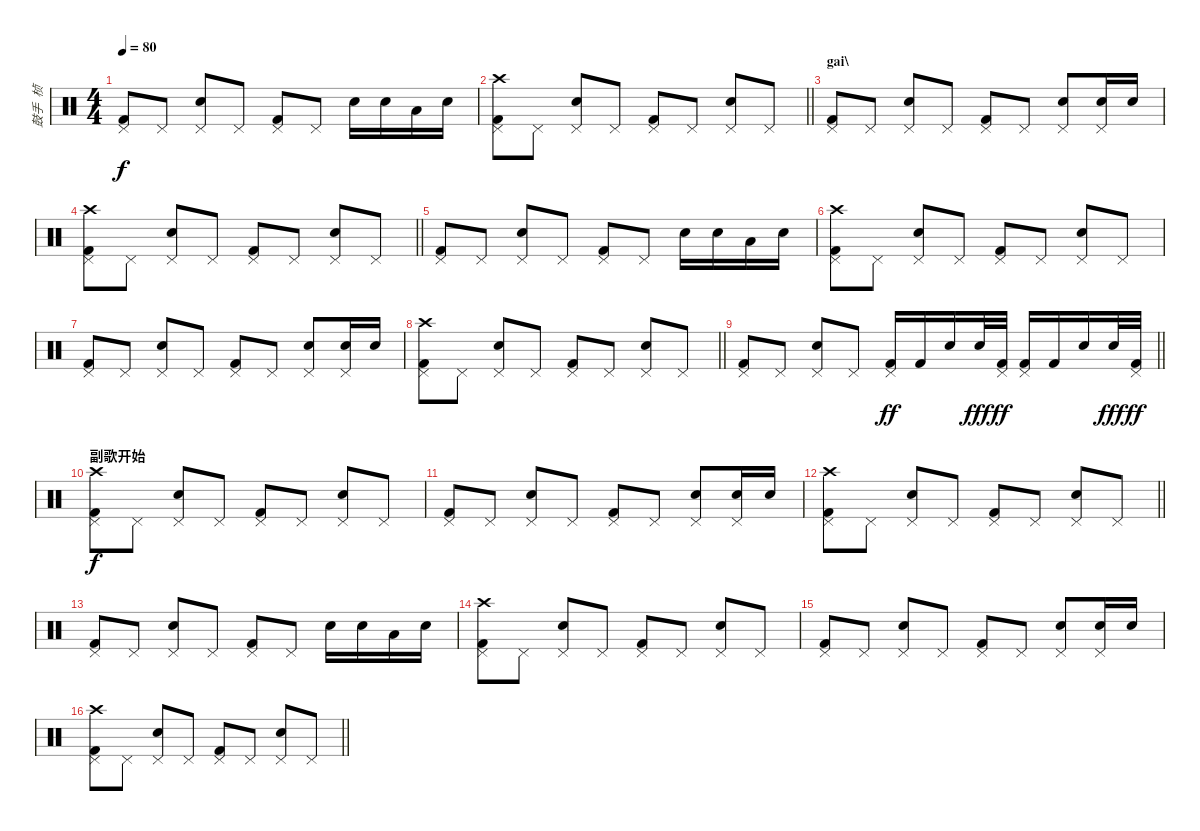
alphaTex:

\track ("鼓手  桢" "鼓手  桢") {instrument percussion}
\staff {score}
\articulation defaults
\ts (4 4)
\tempo 80
\clef neutral
\ks c
("Pedal Hi-Hat (hit)" "Kick (hit) 2").8{dy f} "Pedal Hi-Hat (hit)".8 ("Pedal Hi-Hat (hit)" "Snare (hit) 2").8 "Pedal Hi-Hat (hit)".8 ("Pedal Hi-Hat (hit)" "Kick (hit) 2").8 "Pedal Hi-Hat (hit)".8 "Snare (hit) 2".16 "Snare (hit) 2".16 "Low Tom (hit)".16 "Snare (hit) 2".16 |
\barLineRight lightlight
("Pedal Hi-Hat (hit)" "Kick (hit) 2" "Crash high (hit)").8 "Pedal Hi-Hat (hit)".8 ("Pedal Hi-Hat (hit)" "Snare (hit) 2").8 "Pedal Hi-Hat (hit)".8 ("Pedal Hi-Hat (hit)" "Kick (hit) 2").8 "Pedal Hi-Hat (hit)".8 ("Pedal Hi-Hat (hit)" "Snare (hit) 2").8 "Pedal Hi-Hat (hit)".8 |
\section ("" "gai\\")
("Pedal Hi-Hat (hit)" "Kick (hit) 2").8 "Pedal Hi-Hat (hit)".8 ("Pedal Hi-Hat (hit)" "Snare (hit) 2").8 "Pedal Hi-Hat (hit)".8 ("Pedal Hi-Hat (hit)" "Kick (hit) 2").8 "Pedal Hi-Hat (hit)".8 ("Pedal Hi-Hat (hit)" "Snare (hit) 2").8 ("Pedal Hi-Hat (hit)" "Snare (hit) 2").16 "Snare (hit) 2".16 |
\barLineRight lightlight
("Pedal Hi-Hat (hit)" "Kick (hit) 2" "Crash high (hit)").8 "Pedal Hi-Hat (hit)".8 ("Pedal Hi-Hat (hit)" "Snare (hit) 2").8 "Pedal Hi-Hat (hit)".8 ("Pedal Hi-Hat (hit)" "Kick (hit) 2").8 "Pedal Hi-Hat (hit)".8 ("Pedal Hi-Hat (hit)" "Snare (hit) 2").8 "Pedal Hi-Hat (hit)".8 |
("Pedal Hi-Hat (hit)" "Kick (hit) 2").8 "Pedal Hi-Hat (hit)".8 ("Pedal Hi-Hat (hit)" "Snare (hit) 2").8 "Pedal Hi-Hat (hit)".8 ("Pedal Hi-Hat (hit)" "Kick (hit) 2").8 "Pedal Hi-Hat (hit)".8 "Snare (hit) 2".16 "Snare (hit) 2".16 "Low Tom (hit)".16 "Snare (hit) 2".16 |
("Pedal Hi-Hat (hit)" "Kick (hit) 2" "Crash high (hit)").8 "Pedal Hi-Hat (hit)".8 ("Pedal Hi-Hat (hit)" "Snare (hit) 2").8 "Pedal Hi-Hat (hit)".8 ("Pedal Hi-Hat (hit)" "Kick (hit) 2").8 "Pedal Hi-Hat (hit)".8 ("Pedal Hi-Hat (hit)" "Snare (hit) 2").8 "Pedal Hi-Hat (hit)".8 |
("Pedal Hi-Hat (hit)" "Kick (hit) 2").8 "Pedal Hi-Hat (hit)".8 ("Pedal Hi-Hat (hit)" "Snare (hit) 2").8 "Pedal Hi-Hat (hit)".8 ("Pedal Hi-Hat (hit)" "Kick (hit) 2").8 "Pedal Hi-Hat (hit)".8 ("Pedal Hi-Hat (hit)" "Snare (hit) 2").8 ("Pedal Hi-Hat (hit)" "Snare (hit) 2").16 "Snare (hit) 2".16 |
\barLineRight lightlight
("Pedal Hi-Hat (hit)" "Kick (hit) 2" "Crash high (hit)").8 "Pedal Hi-Hat (hit)".8 ("Pedal Hi-Hat (hit)" "Snare (hit) 2").8 "Pedal Hi-Hat (hit)".8 ("Pedal Hi-Hat (hit)" "Kick (hit) 2").8 "Pedal Hi-Hat (hit)".8 ("Pedal Hi-Hat (hit)" "Snare (hit) 2").8 "Pedal Hi-Hat (hit)".8 |
\barLineRight lightlight
("Pedal Hi-Hat (hit)" "Kick (hit) 2").8 "Pedal Hi-Hat (hit)".8 ("Pedal Hi-Hat (hit)" "Snare (hit) 2").8 "Pedal Hi-Hat (hit)".8 ("Kick (hit) 2" "Pedal Hi-Hat (hit)").16{dy ff} "Kick (hit) 2".16 "Electric Snare (hit)".16 "Electric Snare (hit)".32{dy fff} ("Kick (hit) 2" "Pedal Hi-Hat (hit)").32{dy ff} ("Kick (hit) 2" "Pedal Hi-Hat (hit)").16 "Kick (hit) 2".16 "Electric Snare (hit)".16 "Electric Snare (hit)".32{dy fff} ("Kick (hit) 2" "Pedal Hi-Hat (hit)").32{dy ff} |
\section ("" "副歌开始")
("Pedal Hi-Hat (hit)" "Kick (hit) 2" "Crash high (hit)").8{dy f} "Pedal Hi-Hat (hit)".8 ("Pedal Hi-Hat (hit)" "Snare (hit) 2").8 "Pedal Hi-Hat (hit)".8 ("Pedal Hi-Hat (hit)" "Kick (hit) 2").8 "Pedal Hi-Hat (hit)".8 ("Pedal Hi-Hat (hit)" "Snare (hit) 2").8 "Pedal Hi-Hat (hit)".8 |
("Pedal Hi-Hat (hit)" "Kick (hit) 2").8 "Pedal Hi-Hat (hit)".8 ("Pedal Hi-Hat (hit)" "Snare (hit) 2").8 "Pedal Hi-Hat (hit)".8 ("Pedal Hi-Hat (hit)" "Kick (hit) 2").8 "Pedal Hi-Hat (hit)".8 ("Pedal Hi-Hat (hit)" "Snare (hit) 2").8 ("Pedal Hi-Hat (hit)" "Snare (hit) 2").16 "Snare (hit) 2".16 |
\barLineRight lightlight
("Pedal Hi-Hat (hit)" "Kick (hit) 2" "Crash high (hit)").8 "Pedal Hi-Hat (hit)".8 ("Pedal Hi-Hat (hit)" "Snare (hit) 2").8 "Pedal Hi-Hat (hit)".8 ("Pedal Hi-Hat (hit)" "Kick (hit) 2").8 "Pedal Hi-Hat (hit)".8 ("Pedal Hi-Hat (hit)" "Snare (hit) 2").8 "Pedal Hi-Hat (hit)".8 |
("Pedal Hi-Hat (hit)" "Kick (hit) 2").8 "Pedal Hi-Hat (hit)".8 ("Pedal Hi-Hat (hit)" "Snare (hit) 2").8 "Pedal Hi-Hat (hit)".8 ("Pedal Hi-Hat (hit)" "Kick (hit) 2").8 "Pedal Hi-Hat (hit)".8 "Snare (hit) 2".16 "Snare (hit) 2".16 "Low Tom (hit)".16 "Snare (hit) 2".16 |
("Pedal Hi-Hat (hit)" "Kick (hit) 2" "Crash high (hit)").8 "Pedal Hi-Hat (hit)".8 ("Pedal Hi-Hat (hit)" "Snare (hit) 2").8 "Pedal Hi-Hat (hit)".8 ("Pedal Hi-Hat (hit)" "Kick (hit) 2").8 "Pedal Hi-Hat (hit)".8 ("Pedal Hi-Hat (hit)" "Snare (hit) 2").8 "Pedal Hi-Hat (hit)".8 |
("Pedal Hi-Hat (hit)" "Kick (hit) 2").8 "Pedal Hi-Hat (hit)".8 ("Pedal Hi-Hat (hit)" "Snare (hit) 2").8 "Pedal Hi-Hat (hit)".8 ("Pedal Hi-Hat (hit)" "Kick (hit) 2").8 "Pedal Hi-Hat (hit)".8 ("Pedal Hi-Hat (hit)" "Snare (hit) 2").8 ("Pedal Hi-Hat (hit)" "Snare (hit) 2").16 "Snare (hit) 2".16 |
\barLineRight lightlight
("Pedal Hi-Hat (hit)" "Kick (hit) 2" "Crash high (hit)").8 "Pedal Hi-Hat (hit)".8 ("Pedal Hi-Hat (hit)" "Snare (hit) 2").8 "Pedal Hi-Hat (hit)".8 ("Pedal Hi-Hat (hit)" "Kick (hit) 2").8 "Pedal Hi-Hat (hit)".8 ("Pedal Hi-Hat (hit)" "Snare (hit) 2").8 "Pedal Hi-Hat (hit)".8
